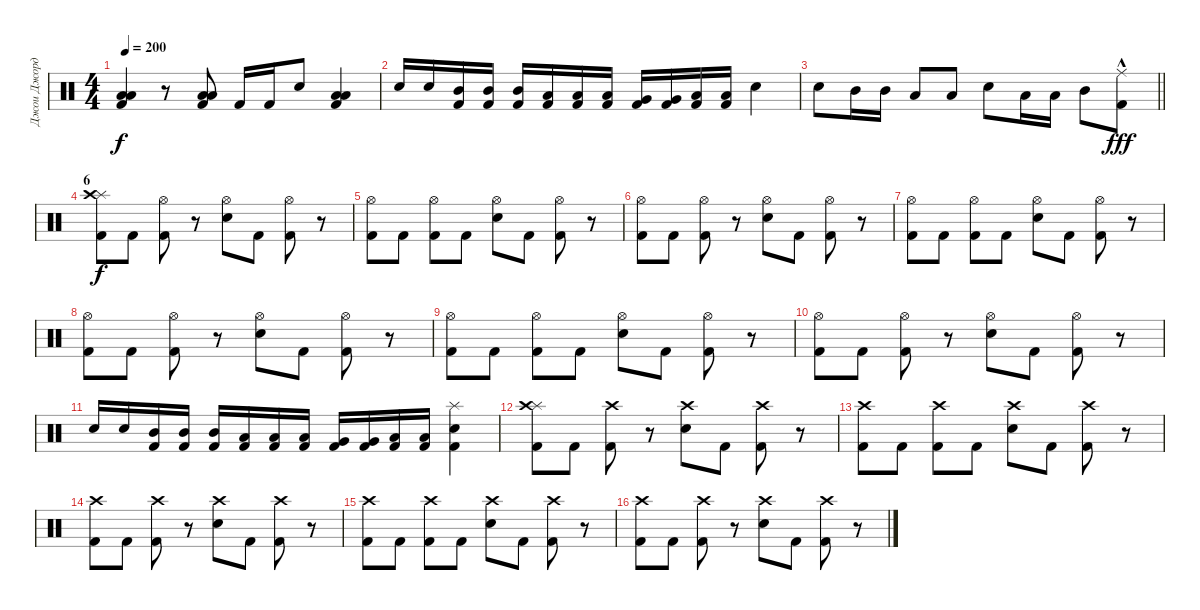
\track ("Джои Джордисон" "Джои Джорд") {instrument percussion}
\staff {score}
\articulation defaults
\ts (4 4)
\tempo 200
\clef neutral
\ks c
("Low Tom (hit)" "Low Floor Tom (hit)" "Kick (hit) 2").4{dy f} r.8 ("Low Tom (hit)" "Low Floor Tom (hit)" "Kick (hit) 2").8 "Kick (hit) 2".16 "Kick (hit) 2".16 "Electric Snare (hit)".8 ("Low Tom (hit)" "Low Floor Tom (hit)" "Kick (hit) 2").4 |
"Electric Snare (hit)".16 "Electric Snare (hit)".16 ("Mid Tom (hit)" "Kick (hit) 2").16 ("Mid Tom (hit)" "Kick (hit) 2").16 ("Mid Tom (hit)" "Kick (hit) 2").16 ("Low Tom (hit)" "Kick (hit) 2").16 ("Low Tom (hit)" "Kick (hit) 2").16 ("Low Tom (hit)" "Kick (hit) 2").16 ("Very Low Tom (hit)" "Kick (hit) 2").16 ("Very Low Tom (hit)" "Kick (hit) 2").16 ("Low Floor Tom (hit)" "Kick (hit) 2").16 ("Low Floor Tom (hit)" "Kick (hit) 2").16 "Electric Snare (hit)".4 |
\barLineRight lightlight "Electric Snare (hit)".8 "Mid Tom (hit)".16 "Mid Tom (hit)".16 "Low Tom (hit)".8 "Low Tom (hit)".8 "Electric Snare (hit)".8 "Low Tom (hit)".16 "Low Tom (hit)".16 "Mid Tom (hit)".8
("Ride (middle)"{hac} "Kick (hit) 2").8{dy fff} |
\section ("" "6")
("Splash (hit)" "Crash high (hit)" "Kick (hit) 2").8{dy f} "Kick (hit) 2".8 ("Hi-Hat (open)" "Kick (hit) 2").8 r.8 ("Hi-Hat (open)" "Electric Snare (hit)").8 "Kick (hit) 2".8 ("Hi-Hat (open)" "Kick (hit) 2").8 r.8 |
("Hi-Hat (open)" "Kick (hit) 2").8 "Kick (hit) 2".8 ("Hi-Hat (open)" "Kick (hit) 2").8 "Kick (hit) 2".8 ("Hi-Hat (open)" "Electric Snare (hit)").8 "Kick (hit) 2".8 ("Hi-Hat (open)" "Kick (hit) 2").8 r.8 |
("Hi-Hat (open)" "Kick (hit) 2").8 "Kick (hit) 2".8 ("Hi-Hat (open)" "Kick (hit) 2").8 r.8 ("Hi-Hat (open)" "Electric Snare (hit)").8 "Kick (hit) 2".8 ("Hi-Hat (open)" "Kick (hit) 2").8 r.8 |
("Hi-Hat (open)" "Kick (hit) 2").8 "Kick (hit) 2".8 ("Hi-Hat (open)" "Kick (hit) 2").8 "Kick (hit) 2".8 ("Hi-Hat (open)" "Electric Snare (hit)").8 "Kick (hit) 2".8 ("Hi-Hat (open)" "Kick (hit) 2").8 r.8 |
("Hi-Hat (open)" "Kick (hit) 2").8 "Kick (hit) 2".8 ("Hi-Hat (open)" "Kick (hit) 2").8 r.8 ("Hi-Hat (open)" "Electric Snare (hit)").8 "Kick (hit) 2".8 ("Hi-Hat (open)" "Kick (hit) 2").8 r.8 |
("Hi-Hat (open)" "Kick (hit) 2").8 "Kick (hit) 2".8 ("Hi-Hat (open)" "Kick (hit) 2").8 "Kick (hit) 2".8 ("Hi-Hat (open)" "Electric Snare (hit)").8 "Kick (hit) 2".8 ("Hi-Hat (open)" "Kick (hit) 2").8 r.8 |
("Hi-Hat (open)" "Kick (hit) 2").8 "Kick (hit) 2".8 ("Hi-Hat (open)" "Kick (hit) 2").8 r.8 ("Hi-Hat (open)" "Electric Snare (hit)").8 "Kick (hit) 2".8 ("Hi-Hat (open)" "Kick (hit) 2").8 r.8 |
"Electric Snare (hit)".16 "Electric Snare (hit)".16 ("Mid Tom (hit)" "Kick (hit) 2").16 ("Mid Tom (hit)" "Kick (hit) 2").16 ("Mid Tom (hit)" "Kick (hit) 2").16 ("Low Tom (hit)" "Kick (hit) 2").16 ("Low Tom (hit)" "Kick (hit) 2").16 ("Low Tom (hit)" "Kick (hit) 2").16 ("Very Low Tom (hit)" "Kick (hit) 2").16 ("Very Low Tom (hit)" "Kick (hit) 2").16 ("Low Floor Tom (hit)" "Kick (hit) 2").16 ("Low Floor Tom (hit)" "Kick (hit) 2").16 ("Splash (hit)" "Electric Snare (hit)" "Kick (hit) 2").4 |
("Splash (hit)" "Crash high (hit)" "Kick (hit) 2").8 "Kick (hit) 2".8 ("Crash high (hit)" "Kick (hit) 2").8 r.8 ("Crash high (hit)" "Electric Snare (hit)").8 "Kick (hit) 2".8 ("Crash high (hit)" "Kick (hit) 2").8 r.8 |
("Crash high (hit)" "Kick (hit) 2").8 "Kick (hit) 2".8 ("Crash high (hit)" "Kick (hit) 2").8 "Kick (hit) 2".8 ("Crash high (hit)" "Electric Snare (hit)").8 "Kick (hit) 2".8 ("Crash high (hit)" "Kick (hit) 2").8 r.8 |
("Crash high (hit)" "Kick (hit) 2").8 "Kick (hit) 2".8 ("Crash high (hit)" "Kick (hit) 2").8 r.8 ("Crash high (hit)" "Electric Snare (hit)").8 "Kick (hit) 2".8 ("Crash high (hit)" "Kick (hit) 2").8 r.8 |
("Crash high (hit)" "Kick (hit) 2").8 "Kick (hit) 2".8 ("Crash high (hit)" "Kick (hit) 2").8 "Kick (hit) 2".8 ("Crash high (hit)" "Electric Snare (hit)").8 "Kick (hit) 2".8 ("Crash high (hit)" "Kick (hit) 2").8 r.8 |
("Crash high (hit)" "Kick (hit) 2").8 "Kick (hit) 2".8 ("Crash high (hit)" "Kick (hit) 2").8 r.8 ("Crash high (hit)" "Electric Snare (hit)").8 "Kick (hit) 2".8 ("Crash high (hit)" "Kick (hit) 2").8 r.8
